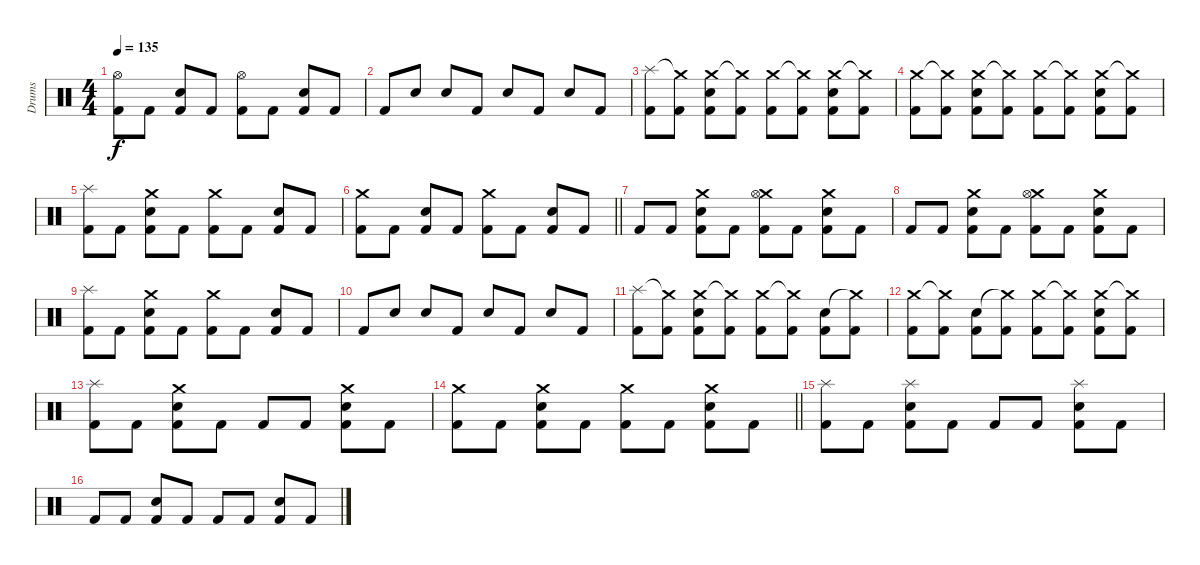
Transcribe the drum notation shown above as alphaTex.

\track ("Drums" "Drums") {instrument percussion}
\staff {score}
\articulation defaults
\ts (4 4)
\tempo 135
\clef neutral
\ks c
("Hi-Hat (open)" "Kick (hit) 2").8{dy f} "Kick (hit) 2".8 ("Snare (hit) 2" "Kick (hit) 2").8 "Kick (hit) 2".8 ("Hi-Hat (open)" "Kick (hit) 2").8 "Kick (hit) 2".8 ("Snare (hit) 2" "Kick (hit) 2").8 "Kick (hit) 2".8 |
"Kick (hit) 2".8 "Snare (hit) 2".8 "Snare (hit) 2".8 "Kick (hit) 2".8 "Snare (hit) 2".8 "Kick (hit) 2".8 "Snare (hit) 2".8 "Kick (hit) 2".8 |
("Splash (hit)" "Kick (hit) 2").8 ("Crash medium (hit)"{t} "Kick (hit) 2").8 ("Crash medium (hit)" "Snare (hit) 2" "Kick (hit) 2").8 ("Crash medium (hit)"{t} "Kick (hit) 2").8 ("Crash medium (hit)" "Kick (hit) 2").8 ("Crash medium (hit)"{t} "Kick (hit) 2").8 ("Crash medium (hit)" "Snare (hit) 2" "Kick (hit) 2").8 ("Crash medium (hit)"{t} "Kick (hit) 2").8 |
("Crash medium (hit)" "Kick (hit) 2").8 ("Crash medium (hit)"{t} "Kick (hit) 2").8 ("Crash medium (hit)" "Snare (hit) 2" "Kick (hit) 2").8 ("Crash medium (hit)"{t} "Kick (hit) 2").8 ("Crash medium (hit)" "Kick (hit) 2").8 ("Crash medium (hit)"{t} "Kick (hit) 2").8 ("Crash medium (hit)" "Snare (hit) 2" "Kick (hit) 2").8 ("Crash medium (hit)"{t} "Kick (hit) 2").8 |
("Splash (hit)" "Kick (hit) 2").8 "Kick (hit) 2".8 ("Crash medium (hit)" "Snare (hit) 2" "Kick (hit) 2").8 "Kick (hit) 2".8 ("Crash medium (hit)" "Kick (hit) 2").8 "Kick (hit) 2".8 ("Snare (hit) 2" "Kick (hit) 2").8 "Kick (hit) 2".8 |
\barLineRight lightlight
("Crash medium (hit)" "Kick (hit) 2").8 "Kick (hit) 2".8 ("Snare (hit) 2" "Kick (hit) 2").8 "Kick (hit) 2".8 ("Crash medium (hit)" "Kick (hit) 2").8 "Kick (hit) 2".8 ("Snare (hit) 2" "Kick (hit) 2").8 "Kick (hit) 2".8 |
"Kick (hit) 2".8 "Kick (hit) 2".8 ("Crash medium (hit)" "Snare (hit) 2" "Kick (hit) 2").8 "Kick (hit) 2".8 ("Crash medium (hit)" "Hi-Hat (open)" "Kick (hit) 2").8 "Kick (hit) 2".8 ("Crash medium (hit)" "Snare (hit) 2" "Kick (hit) 2").8 "Kick (hit) 2".8 |
"Kick (hit) 2".8 "Kick (hit) 2".8 ("Crash medium (hit)" "Snare (hit) 2" "Kick (hit) 2").8 "Kick (hit) 2".8 ("Crash medium (hit)" "Hi-Hat (open)" "Kick (hit) 2").8 "Kick (hit) 2".8 ("Crash medium (hit)" "Snare (hit) 2" "Kick (hit) 2").8 "Kick (hit) 2".8 |
("Splash (hit)" "Kick (hit) 2").8 "Kick (hit) 2".8 ("Crash medium (hit)" "Snare (hit) 2" "Kick (hit) 2").8 "Kick (hit) 2".8 ("Crash medium (hit)" "Kick (hit) 2").8 "Kick (hit) 2".8 ("Snare (hit) 2" "Kick (hit) 2").8 "Kick (hit) 2".8 |
"Kick (hit) 2".8 "Snare (hit) 2".8 "Snare (hit) 2".8 "Kick (hit) 2".8 "Snare (hit) 2".8 "Kick (hit) 2".8 "Snare (hit) 2".8 "Kick (hit) 2".8 |
("Splash (hit)" "Kick (hit) 2").8 ("Crash medium (hit)"{t} "Kick (hit) 2").8 ("Crash medium (hit)" "Snare (hit) 2" "Kick (hit) 2").8 ("Crash medium (hit)"{t} "Kick (hit) 2").8 ("Crash medium (hit)" "Kick (hit) 2").8 ("Crash medium (hit)"{t} "Kick (hit) 2").8 ("Snare (hit) 2" "Kick (hit) 2").8 ("Crash medium (hit)"{t} "Kick (hit) 2").8 |
("Crash medium (hit)" "Kick (hit) 2").8 ("Crash medium (hit)"{t} "Kick (hit) 2").8 ("Snare (hit) 2" "Kick (hit) 2").8 ("Crash medium (hit)"{t} "Kick (hit) 2").8 ("Crash medium (hit)" "Kick (hit) 2").8 ("Crash medium (hit)"{t} "Kick (hit) 2").8 ("Crash medium (hit)" "Snare (hit) 2" "Kick (hit) 2").8 ("Crash medium (hit)"{t} "Kick (hit) 2").8 |
("Splash (hit)" "Kick (hit) 2").8 "Kick (hit) 2".8 ("Crash medium (hit)" "Snare (hit) 2" "Kick (hit) 2").8 "Kick (hit) 2".8 "Kick (hit) 2".8 "Kick (hit) 2".8 ("Crash medium (hit)" "Snare (hit) 2" "Kick (hit) 2").8 "Kick (hit) 2".8 |
\barLineRight lightlight
("Crash medium (hit)" "Kick (hit) 2").8 "Kick (hit) 2".8 ("Crash medium (hit)" "Snare (hit) 2" "Kick (hit) 2").8 "Kick (hit) 2".8 ("Crash medium (hit)" "Kick (hit) 2").8 "Kick (hit) 2".8 ("Crash medium (hit)" "Snare (hit) 2" "Kick (hit) 2").8 "Kick (hit) 2".8 |
("Splash (hit)" "Kick (hit) 2").8 "Kick (hit) 2".8 ("Splash (hit)" "Snare (hit) 2" "Kick (hit) 2").8 "Kick (hit) 2".8 "Kick (hit) 2".8 "Kick (hit) 2".8 ("Splash (hit)" "Snare (hit) 2" "Kick (hit) 2").8 "Kick (hit) 2".8 |
"Kick (hit) 2".8 "Kick (hit) 2".8 ("Snare (hit) 2" "Kick (hit) 2").8 "Kick (hit) 2".8 "Kick (hit) 2".8 "Kick (hit) 2".8 ("Snare (hit) 2" "Kick (hit) 2").8 "Kick (hit) 2".8
